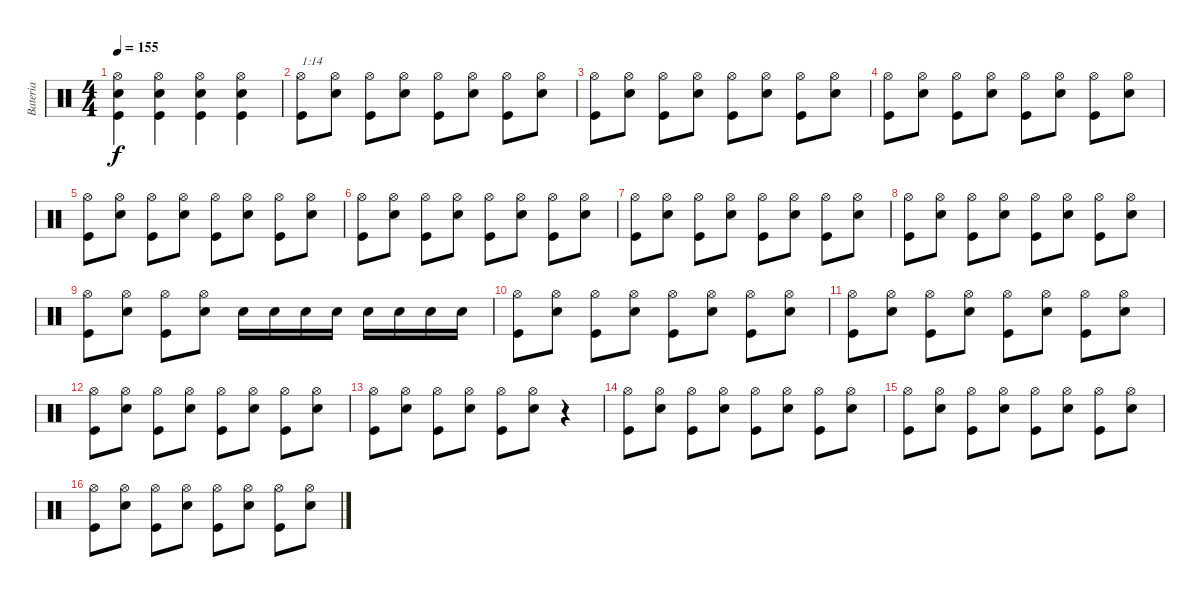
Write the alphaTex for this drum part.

\track ("Bateria" "Bateria") {instrument percussion}
\staff {score}
\articulation defaults
\ts (4 4)
\tempo 155
\clef neutral
\ks c
("Kick (hit)" "Snare (hit) 2" "Hi-Hat (open)").4{dy f} ("Kick (hit)" "Snare (hit) 2" "Hi-Hat (open)").4 ("Kick (hit)" "Snare (hit) 2" "Hi-Hat (open)").4 ("Kick (hit)" "Snare (hit) 2" "Hi-Hat (open)").4 |
("Kick (hit)" "Hi-Hat (open)").8{txt "1:14"} ("Snare (hit) 2" "Hi-Hat (open)").8 ("Kick (hit)" "Hi-Hat (open)").8 ("Snare (hit) 2" "Hi-Hat (open)").8 ("Kick (hit)" "Hi-Hat (open)").8 ("Snare (hit) 2" "Hi-Hat (open)").8 ("Kick (hit)" "Hi-Hat (open)").8 ("Snare (hit) 2" "Hi-Hat (open)").8 |
("Kick (hit)" "Hi-Hat (open)").8 ("Snare (hit) 2" "Hi-Hat (open)").8 ("Kick (hit)" "Hi-Hat (open)").8 ("Snare (hit) 2" "Hi-Hat (open)").8 ("Kick (hit)" "Hi-Hat (open)").8 ("Snare (hit) 2" "Hi-Hat (open)").8 ("Kick (hit)" "Hi-Hat (open)").8 ("Snare (hit) 2" "Hi-Hat (open)").8 |
("Kick (hit)" "Hi-Hat (open)").8 ("Snare (hit) 2" "Hi-Hat (open)").8 ("Kick (hit)" "Hi-Hat (open)").8 ("Snare (hit) 2" "Hi-Hat (open)").8 ("Kick (hit)" "Hi-Hat (open)").8 ("Snare (hit) 2" "Hi-Hat (open)").8 ("Kick (hit)" "Hi-Hat (open)").8 ("Snare (hit) 2" "Hi-Hat (open)").8 |
("Kick (hit)" "Hi-Hat (open)").8 ("Snare (hit) 2" "Hi-Hat (open)").8 ("Kick (hit)" "Hi-Hat (open)").8 ("Snare (hit) 2" "Hi-Hat (open)").8 ("Kick (hit)" "Hi-Hat (open)").8 ("Snare (hit) 2" "Hi-Hat (open)").8 ("Kick (hit)" "Hi-Hat (open)").8 ("Snare (hit) 2" "Hi-Hat (open)").8 |
("Kick (hit)" "Hi-Hat (open)").8 ("Snare (hit) 2" "Hi-Hat (open)").8 ("Kick (hit)" "Hi-Hat (open)").8 ("Snare (hit) 2" "Hi-Hat (open)").8 ("Kick (hit)" "Hi-Hat (open)").8 ("Snare (hit) 2" "Hi-Hat (open)").8 ("Kick (hit)" "Hi-Hat (open)").8 ("Snare (hit) 2" "Hi-Hat (open)").8 |
("Kick (hit)" "Hi-Hat (open)").8 ("Snare (hit) 2" "Hi-Hat (open)").8 ("Kick (hit)" "Hi-Hat (open)").8 ("Snare (hit) 2" "Hi-Hat (open)").8 ("Kick (hit)" "Hi-Hat (open)").8 ("Snare (hit) 2" "Hi-Hat (open)").8 ("Kick (hit)" "Hi-Hat (open)").8 ("Snare (hit) 2" "Hi-Hat (open)").8 |
("Kick (hit)" "Hi-Hat (open)").8 ("Snare (hit) 2" "Hi-Hat (open)").8 ("Kick (hit)" "Hi-Hat (open)").8 ("Snare (hit) 2" "Hi-Hat (open)").8 ("Kick (hit)" "Hi-Hat (open)").8 ("Snare (hit) 2" "Hi-Hat (open)").8 ("Kick (hit)" "Hi-Hat (open)").8 ("Snare (hit) 2" "Hi-Hat (open)").8 |
("Kick (hit)" "Hi-Hat (open)").8 ("Snare (hit) 2" "Hi-Hat (open)").8 ("Kick (hit)" "Hi-Hat (open)").8 ("Snare (hit) 2" "Hi-Hat (open)").8 "Snare (hit) 2".16 "Snare (hit) 2".16 "Snare (hit) 2".16 "Snare (hit) 2".16 "Snare (hit) 2".16 "Snare (hit) 2".16 "Snare (hit) 2".16 "Snare (hit) 2".16 |
("Kick (hit)" "Hi-Hat (open)").8 ("Snare (hit) 2" "Hi-Hat (open)").8 ("Kick (hit)" "Hi-Hat (open)").8 ("Snare (hit) 2" "Hi-Hat (open)").8 ("Kick (hit)" "Hi-Hat (open)").8 ("Snare (hit) 2" "Hi-Hat (open)").8 ("Kick (hit)" "Hi-Hat (open)").8 ("Snare (hit) 2" "Hi-Hat (open)").8 |
("Kick (hit)" "Hi-Hat (open)").8 ("Snare (hit) 2" "Hi-Hat (open)").8 ("Kick (hit)" "Hi-Hat (open)").8 ("Snare (hit) 2" "Hi-Hat (open)").8 ("Kick (hit)" "Hi-Hat (open)").8 ("Snare (hit) 2" "Hi-Hat (open)").8 ("Kick (hit)" "Hi-Hat (open)").8 ("Snare (hit) 2" "Hi-Hat (open)").8 |
("Kick (hit)" "Hi-Hat (open)").8 ("Snare (hit) 2" "Hi-Hat (open)").8 ("Kick (hit)" "Hi-Hat (open)").8 ("Snare (hit) 2" "Hi-Hat (open)").8 ("Kick (hit)" "Hi-Hat (open)").8 ("Snare (hit) 2" "Hi-Hat (open)").8 ("Kick (hit)" "Hi-Hat (open)").8 ("Snare (hit) 2" "Hi-Hat (open)").8 |
("Kick (hit)" "Hi-Hat (open)").8 ("Snare (hit) 2" "Hi-Hat (open)").8 ("Kick (hit)" "Hi-Hat (open)").8 ("Snare (hit) 2" "Hi-Hat (open)").8 ("Kick (hit)" "Hi-Hat (open)").8 ("Snare (hit) 2" "Hi-Hat (open)").8 r.4 |
("Kick (hit)" "Hi-Hat (open)").8 ("Snare (hit) 2" "Hi-Hat (open)").8 ("Kick (hit)" "Hi-Hat (open)").8 ("Snare (hit) 2" "Hi-Hat (open)").8 ("Kick (hit)" "Hi-Hat (open)").8 ("Snare (hit) 2" "Hi-Hat (open)").8 ("Kick (hit)" "Hi-Hat (open)").8 ("Snare (hit) 2" "Hi-Hat (open)").8 |
("Kick (hit)" "Hi-Hat (open)").8 ("Snare (hit) 2" "Hi-Hat (open)").8 ("Kick (hit)" "Hi-Hat (open)").8 ("Snare (hit) 2" "Hi-Hat (open)").8 ("Kick (hit)" "Hi-Hat (open)").8 ("Snare (hit) 2" "Hi-Hat (open)").8 ("Kick (hit)" "Hi-Hat (open)").8 ("Snare (hit) 2" "Hi-Hat (open)").8 |
("Kick (hit)" "Hi-Hat (open)").8 ("Snare (hit) 2" "Hi-Hat (open)").8 ("Kick (hit)" "Hi-Hat (open)").8 ("Snare (hit) 2" "Hi-Hat (open)").8 ("Kick (hit)" "Hi-Hat (open)").8 ("Snare (hit) 2" "Hi-Hat (open)").8 ("Kick (hit)" "Hi-Hat (open)").8 ("Snare (hit) 2" "Hi-Hat (open)").8
